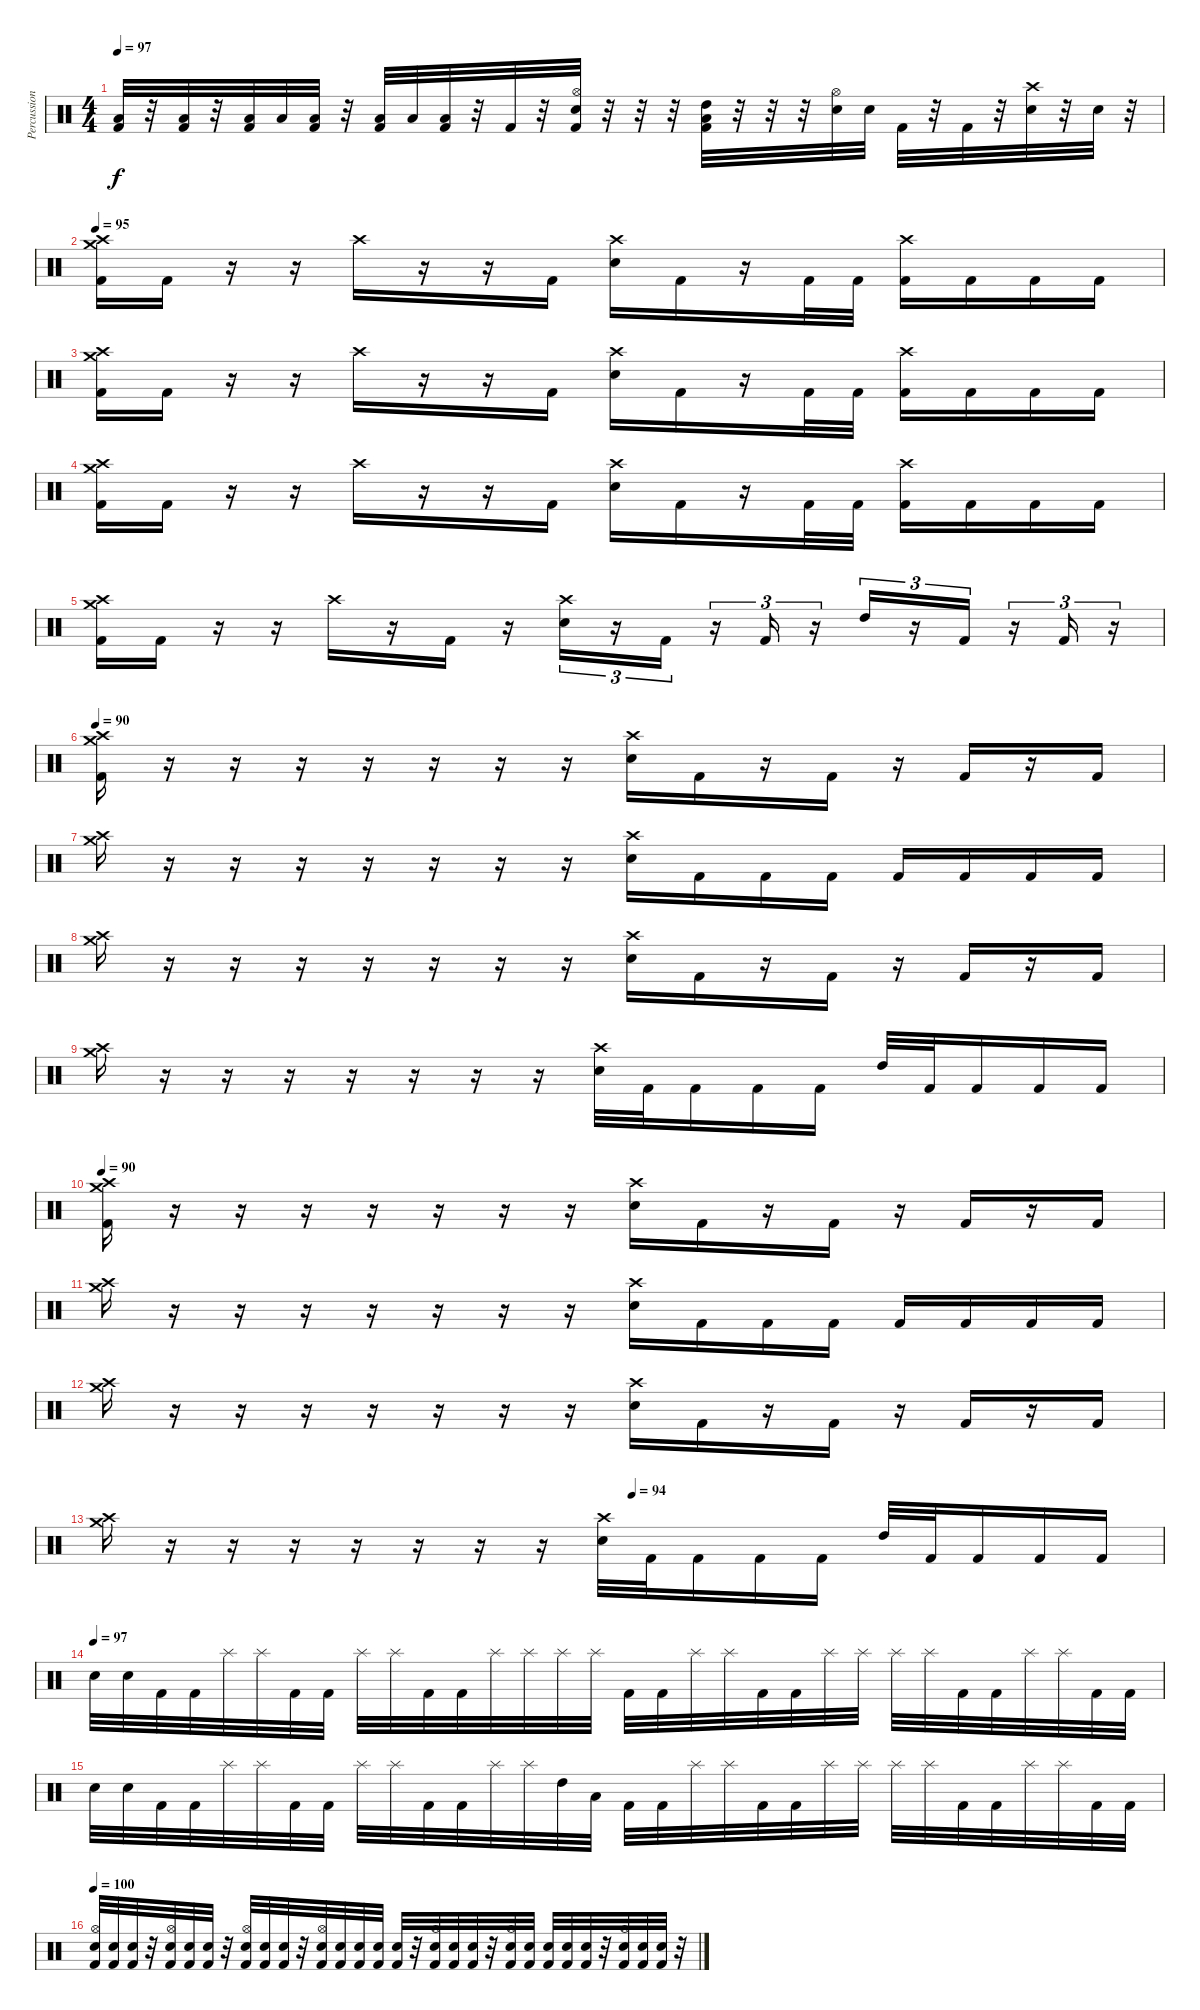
\track ("Percussion" "Percussion") {instrument percussion}
\staff {score}
\articulation defaults
\ts (4 4)
\tempo 97
\clef neutral
\ks c
("Low Tom (hit)" "Kick (hit) 2").32{dy f} r.32 ("Low Tom (hit)" "Kick (hit) 2").32 r.32 ("Low Tom (hit)" "Kick (hit) 2").32 "Low Tom (hit)".32 ("Low Tom (hit)" "Kick (hit) 2").32 r.32 ("Low Tom (hit)" "Kick (hit) 2").32 "Low Tom (hit)".32 ("Low Tom (hit)" "Kick (hit) 2").32 r.32 "Kick (hit) 2".32 r.32 ("Hi-Hat (open)" "Electric Snare (hit)" "Kick (hit) 2").32 r.32 r.32 r.32 ("Low Tom (hit)" "High Tom (hit)" "Kick (hit) 2").32 r.32 r.32 r.32 ("Hi-Hat (open)" "Electric Snare (hit)").32 "Electric Snare (hit)".32 "Kick (hit) 2".32 r.32 "Kick (hit) 2".32 r.32 ("Crash high (hit)" "Electric Snare (hit)").32 r.32 "Snare (hit)".32 r.32 |
\tempo 95
("Crash high (hit)" "Crash medium (hit)" "Kick (hit) 2").16 "Kick (hit) 2".16 r.16 r.16 "Crash high (hit)".16 r.16 r.16 "Kick (hit) 2".16 ("Crash high (hit)" "Electric Snare (hit)").16 "Kick (hit) 2".16 r.16 "Kick (hit) 2".32 "Kick (hit) 2".32 ("Crash high (hit)" "Kick (hit) 2").16 "Kick (hit) 2".16 "Kick (hit) 2".16 "Kick (hit) 2".16 |
("Crash high (hit)" "Crash medium (hit)" "Kick (hit) 2").16 "Kick (hit) 2".16 r.16 r.16 "Crash high (hit)".16 r.16 r.16 "Kick (hit) 2".16 ("Crash high (hit)" "Electric Snare (hit)").16 "Kick (hit) 2".16 r.16 "Kick (hit) 2".32 "Kick (hit) 2".32 ("Crash high (hit)" "Kick (hit) 2").16 "Kick (hit) 2".16 "Kick (hit) 2".16 "Kick (hit) 2".16 |
("Crash high (hit)" "Crash medium (hit)" "Kick (hit) 2").16 "Kick (hit) 2".16 r.16 r.16 "Crash high (hit)".16 r.16 r.16 "Kick (hit) 2".16 ("Crash high (hit)" "Electric Snare (hit)").16 "Kick (hit) 2".16 r.16 "Kick (hit) 2".32 "Kick (hit) 2".32 ("Crash high (hit)" "Kick (hit) 2").16 "Kick (hit) 2".16 "Kick (hit) 2".16 "Kick (hit) 2".16 |
("Crash high (hit)" "Crash medium (hit)" "Kick (hit) 2").16 "Kick (hit) 2".16 r.16 r.16 "Crash high (hit)".16 r.16 "Kick (hit) 2".16 r.16 ("Crash high (hit)" "Electric Snare (hit)").16{tu (3 2)} r.16{tu (3 2)} "Kick (hit) 2".16{tu (3 2)} r.16{tu (3 2)} "Kick (hit) 2".16{tu (3 2)} r.16{tu (3 2)} "High Tom (hit)".16{tu (3 2)} r.16{tu (3 2)} "Kick (hit) 2".16{tu (3 2)} r.16{tu (3 2)} "Kick (hit) 2".16{tu (3 2)} r.16{tu (3 2)} |
\tempo 90
("Crash medium (hit)" "Crash high (hit)" "Kick (hit) 2").16 r.16 r.16 r.16 r.16 r.16 r.16 r.16 ("Crash high (hit)" "Electric Snare (hit)").16 "Kick (hit) 2".16 r.16 "Kick (hit) 2".16 r.16 "Kick (hit) 2".16 r.16 "Kick (hit) 2".16 |
("Crash medium (hit)" "Crash high (hit)").16 r.16 r.16 r.16 r.16 r.16 r.16 r.16 ("Crash high (hit)" "Electric Snare (hit)").16 "Kick (hit) 2".16 "Kick (hit) 2".16 "Kick (hit) 2".16 "Kick (hit) 2".16 "Kick (hit) 2".16 "Kick (hit) 2".16 "Kick (hit) 2".16 |
("Crash medium (hit)" "Crash high (hit)").16 r.16 r.16 r.16 r.16 r.16 r.16 r.16 ("Crash high (hit)" "Electric Snare (hit)").16 "Kick (hit) 2".16 r.16 "Kick (hit) 2".16 r.16 "Kick (hit) 2".16 r.16 "Kick (hit) 2".16 |
("Crash medium (hit)" "Crash high (hit)").16 r.16 r.16 r.16 r.16 r.16 r.16 r.16 ("Crash high (hit)" "Electric Snare (hit)").32 "Kick (hit) 2".32 "Kick (hit) 2".16 "Kick (hit) 2".16 "Kick (hit) 2".16 "High Tom (hit)".32 "Kick (hit) 2".32 "Kick (hit) 2".16 "Kick (hit) 2".16 "Kick (hit) 2".16 |
\tempo 90
("Crash medium (hit)" "Crash high (hit)" "Kick (hit) 2").16 r.16 r.16 r.16 r.16 r.16 r.16 r.16 ("Crash high (hit)" "Electric Snare (hit)").16 "Kick (hit) 2".16 r.16 "Kick (hit) 2".16 r.16 "Kick (hit) 2".16 r.16 "Kick (hit) 2".16 |
("Crash medium (hit)" "Crash high (hit)").16 r.16 r.16 r.16 r.16 r.16 r.16 r.16 ("Crash high (hit)" "Electric Snare (hit)").16 "Kick (hit) 2".16 "Kick (hit) 2".16 "Kick (hit) 2".16 "Kick (hit) 2".16 "Kick (hit) 2".16 "Kick (hit) 2".16 "Kick (hit) 2".16 |
("Crash medium (hit)" "Crash high (hit)").16 r.16 r.16 r.16 r.16 r.16 r.16 r.16 ("Crash high (hit)" "Electric Snare (hit)").16 "Kick (hit) 2".16 r.16 "Kick (hit) 2".16 r.16 "Kick (hit) 2".16 r.16 "Kick (hit) 2".16 |
\tempo (94 0.5)
("Crash medium (hit)" "Crash high (hit)").16 r.16 r.16 r.16 r.16 r.16 r.16 r.16 ("Crash high (hit)" "Electric Snare (hit)").32 "Kick (hit) 2".32 "Kick (hit) 2".16 "Kick (hit) 2".16 "Kick (hit) 2".16 "High Tom (hit)".32 "Kick (hit) 2".32 "Kick (hit) 2".16 "Kick (hit) 2".16 "Kick (hit) 2".16 |
\tempo (97)
"Electric Snare (hit)".32 "Electric Snare (hit)".32 "Kick (hit) 2".32 "Kick (hit) 2".32 "Splash (hit)".32 "Splash (hit)".32 "Kick (hit) 2".32 "Kick (hit) 2".32 "Splash (hit)".32 "Splash (hit)".32 "Kick (hit) 2".32 "Kick (hit) 2".32 "Splash (hit)".32 "Splash (hit)".32 "Splash (hit)".32 "Splash (hit)".32 "Kick (hit) 2".32 "Kick (hit) 2".32 "Splash (hit)".32 "Splash (hit)".32 "Kick (hit) 2".32 "Kick (hit) 2".32 "Splash (hit)".32 "Splash (hit)".32 "Splash (hit)".32 "Splash (hit)".32 "Kick (hit) 2".32 "Kick (hit) 2".32 "Splash (hit)".32 "Splash (hit)".32 "Kick (hit) 2".32 "Kick (hit) 2".32 |
"Electric Snare (hit)".32 "Electric Snare (hit)".32 "Kick (hit) 2".32 "Kick (hit) 2".32 "Splash (hit)".32 "Splash (hit)".32 "Kick (hit) 2".32 "Kick (hit) 2".32 "Splash (hit)".32 "Splash (hit)".32 "Kick (hit) 2".32 "Kick (hit) 2".32 "Splash (hit)".32 "Splash (hit)".32 "High Tom (hit)".32 "Low Tom (hit)".32 "Kick (hit) 2".32 "Kick (hit) 2".32 "Splash (hit)".32 "Splash (hit)".32 "Kick (hit) 2".32 "Kick (hit) 2".32 "Splash (hit)".32 "Splash (hit)".32 "Splash (hit)".32 "Splash (hit)".32 "Kick (hit) 2".32 "Kick (hit) 2".32 "Splash (hit)".32 "Splash (hit)".32 "Kick (hit) 2".32 "Kick (hit) 2".32 |
\tempo 100
("Hi-Hat (open)" "Electric Snare (hit)" "Kick (hit) 2").32 ("Electric Snare (hit)" "Kick (hit) 2").32 ("Electric Snare (hit)" "Kick (hit) 2").32 r.32 ("Hi-Hat (open)" "Electric Snare (hit)" "Kick (hit) 2").32 ("Electric Snare (hit)" "Kick (hit) 2").32 ("Electric Snare (hit)" "Kick (hit) 2").32 r.32 ("Hi-Hat (open)" "Electric Snare (hit)" "Kick (hit) 2").32 ("Electric Snare (hit)" "Kick (hit) 2").32 ("Electric Snare (hit)" "Kick (hit) 2").32 r.32 ("Hi-Hat (open)" "Electric Snare (hit)" "Kick (hit) 2").32 ("Electric Snare (hit)" "Kick (hit) 2").32 ("Electric Snare (hit)" "Kick (hit) 2").32 ("Electric Snare (hit)" "Kick (hit) 2").32 ("Electric Snare (hit)" "Kick (hit) 2").32 r.32 ("Hi-Hat (open)" "Electric Snare (hit)" "Kick (hit) 2").32 ("Electric Snare (hit)" "Kick (hit) 2").32 ("Electric Snare (hit)" "Kick (hit) 2").32 r.32 ("Hi-Hat (open)" "Electric Snare (hit)" "Kick (hit) 2").32 ("Electric Snare (hit)" "Kick (hit) 2").32 ("Electric Snare (hit)" "Kick (hit) 2").32 ("Electric Snare (hit)" "Kick (hit) 2").32 ("Electric Snare (hit)" "Kick (hit) 2").32 r.32 ("Hi-Hat (open)" "Electric Snare (hit)" "Kick (hit) 2").32 ("Electric Snare (hit)" "Kick (hit) 2").32 ("Electric Snare (hit)" "Kick (hit) 2").32 r.32
